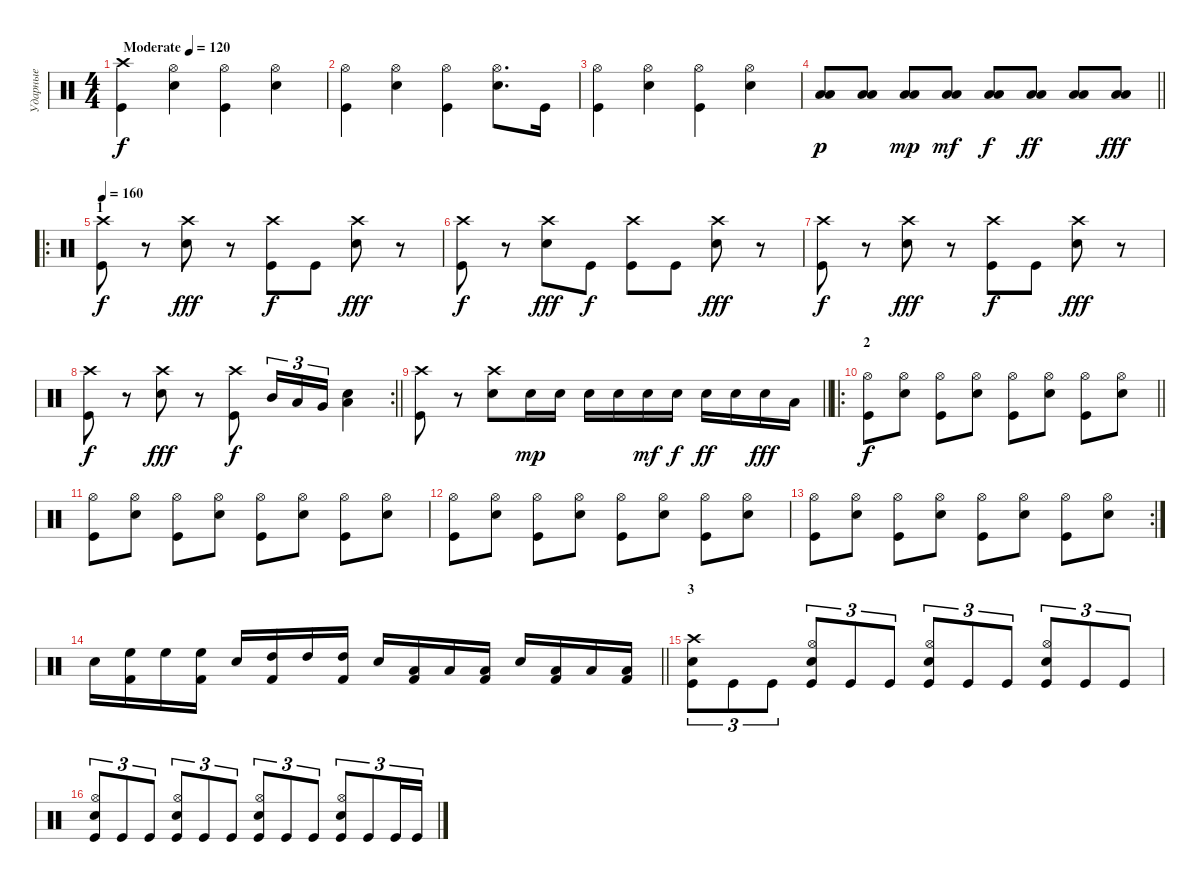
\track ("Ударные" "Ударные") {instrument percussion}
\staff {score}
\articulation defaults
\ts (4 4)
\tempo (120 "Moderate")
\tempo 160
\tempo (120 "Moderate")
\clef neutral
\ks c
("Crash high (hit)" "Kick (hit)").4{dy f} ("Hi-Hat (open)" "Electric Snare (hit)").4 ("Hi-Hat (open)" "Kick (hit)").4 ("Hi-Hat (open)" "Electric Snare (hit)").4 |
("Hi-Hat (open)" "Kick (hit)").4 ("Hi-Hat (open)" "Electric Snare (hit)").4 ("Hi-Hat (open)" "Kick (hit)").4 ("Hi-Hat (open)" "Electric Snare (hit)").8{d} "Kick (hit)".16 |
("Hi-Hat (open)" "Kick (hit)").4 ("Hi-Hat (open)" "Electric Snare (hit)").4 ("Hi-Hat (open)" "Kick (hit)").4 ("Hi-Hat (open)" "Electric Snare (hit)").4 |
\barLineRight lightlight
("Low Tom (hit)" "Low Floor Tom (hit)").8{dy p} ("Low Tom (hit)" "Low Floor Tom (hit)").8 ("Low Tom (hit)" "Low Floor Tom (hit)").8{dy mp} ("Low Tom (hit)" "Low Floor Tom (hit)").8{dy mf} ("Low Tom (hit)" "Low Floor Tom (hit)").8{dy f} ("Low Tom (hit)" "Low Floor Tom (hit)").8{dy ff} ("Low Tom (hit)" "Low Floor Tom (hit)").8 ("Low Tom (hit)" "Low Floor Tom (hit)").8{dy fff} |
\ro
\section ("" "1")
\tempo 160
("Kick (hit)" "Crash high (hit)").8{dy f} r.8 ("Electric Snare (hit)" "Crash high (hit)").8{dy fff} r.8 ("Kick (hit)" "Crash high (hit)").8{dy f} "Kick (hit)".8 ("Electric Snare (hit)" "Crash high (hit)").8{dy fff} r.8 |
("Kick (hit)" "Crash high (hit)").8{dy f} r.8 ("Electric Snare (hit)" "Crash high (hit)").8{dy fff} "Kick (hit)".8{dy f} ("Kick (hit)" "Crash high (hit)").8 "Kick (hit)".8 ("Electric Snare (hit)" "Crash high (hit)").8{dy fff} r.8 |
("Kick (hit)" "Crash high (hit)").8{dy f} r.8 ("Electric Snare (hit)" "Crash high (hit)").8{dy fff} r.8 ("Kick (hit)" "Crash high (hit)").8{dy f} "Kick (hit)".8 ("Electric Snare (hit)" "Crash high (hit)").8{dy fff} r.8 |
\rc 2
\barLineRight lightlight
("Kick (hit)" "Crash high (hit)").8{dy f} r.8 ("Electric Snare (hit)" "Crash high (hit)").8{dy fff} r.8 ("Kick (hit)" "Crash high (hit)").8{dy f} "Mid Tom (hit)".16{tu (3 2)} "Low Tom (hit)".16{tu (3 2)} "Very Low Tom (hit)".16{tu (3 2)} ("Low Floor Tom (hit)" "Electric Snare (hit)").4 |
\barLineRight lightlight
("Kick (hit)" "Crash high (hit)").8 r.8 ("Electric Snare (hit)" "Crash high (hit)").8 "Electric Snare (hit)".16{dy mp} "Electric Snare (hit)".16 "Electric Snare (hit)".16 "Electric Snare (hit)".16 "Electric Snare (hit)".16{dy mf} "Electric Snare (hit)".16{dy f} "Electric Snare (hit)".16{dy ff} "Electric Snare (hit)".16 "Electric Snare (hit)".16{dy fff} "Low Tom (hit)".16 |
\ro
\section ("" "2")
\barLineRight lightlight
("Hi-Hat (open)" "Kick (hit)").8{dy f} ("Hi-Hat (open)" "Electric Snare (hit)").8 ("Hi-Hat (open)" "Kick (hit)").8 ("Hi-Hat (open)" "Electric Snare (hit)").8 ("Hi-Hat (open)" "Kick (hit)").8 ("Hi-Hat (open)" "Electric Snare (hit)").8 ("Hi-Hat (open)" "Kick (hit)").8 ("Hi-Hat (open)" "Electric Snare (hit)").8 |
("Hi-Hat (open)" "Kick (hit)").8 ("Hi-Hat (open)" "Electric Snare (hit)").8 ("Hi-Hat (open)" "Kick (hit)").8 ("Hi-Hat (open)" "Electric Snare (hit)").8 ("Hi-Hat (open)" "Kick (hit)").8 ("Hi-Hat (open)" "Electric Snare (hit)").8 ("Hi-Hat (open)" "Kick (hit)").8 ("Hi-Hat (open)" "Electric Snare (hit)").8 |
("Hi-Hat (open)" "Kick (hit)").8 ("Hi-Hat (open)" "Electric Snare (hit)").8 ("Hi-Hat (open)" "Kick (hit)").8 ("Hi-Hat (open)" "Electric Snare (hit)").8 ("Hi-Hat (open)" "Kick (hit)").8 ("Hi-Hat (open)" "Electric Snare (hit)").8 ("Hi-Hat (open)" "Kick (hit)").8 ("Hi-Hat (open)" "Electric Snare (hit)").8 |
\rc 2
("Hi-Hat (open)" "Kick (hit)").8 ("Hi-Hat (open)" "Electric Snare (hit)").8 ("Hi-Hat (open)" "Kick (hit)").8 ("Hi-Hat (open)" "Electric Snare (hit)").8 ("Hi-Hat (open)" "Kick (hit)").8 ("Hi-Hat (open)" "Electric Snare (hit)").8 ("Hi-Hat (open)" "Kick (hit)").8 ("Hi-Hat (open)" "Electric Snare (hit)").8 |
\barLineRight lightlight "Snare (hit) 2".16
("High Floor Tom (hit)" "Kick (hit) 2").16 "High Floor Tom (hit)".16 ("High Floor Tom (hit)" "Kick (hit) 2").16 "Snare (hit) 2".16 ("High Tom (hit)" "Kick (hit) 2").16 "High Tom (hit)".16 ("High Tom (hit)" "Kick (hit) 2").16 "Snare (hit) 2".16 ("Low Tom (hit)" "Kick (hit) 2").16 "Low Tom (hit)".16 ("Low Tom (hit)" "Kick (hit) 2").16 "Snare (hit) 2".16 ("Low Floor Tom (hit)" "Kick (hit) 2").16 "Low Floor Tom (hit)".16 ("Low Floor Tom (hit)" "Kick (hit) 2").16 |
\section ("" "3")
("Crash high (hit)" "Electric Snare (hit)" "Kick (hit)").8{tu (3 2)} "Kick (hit)".8{tu (3 2)} "Kick (hit)".8{tu (3 2)} ("Hi-Hat (open)" "Electric Snare (hit)" "Kick (hit)").8{tu (3 2)} "Kick (hit)".8{tu (3 2)} "Kick (hit)".8{tu (3 2)} ("Hi-Hat (open)" "Electric Snare (hit)" "Kick (hit)").8{tu (3 2)} "Kick (hit)".8{tu (3 2)} "Kick (hit)".8{tu (3 2)} ("Hi-Hat (open)" "Electric Snare (hit)" "Kick (hit)").8{tu (3 2)} "Kick (hit)".8{tu (3 2)} "Kick (hit)".8{tu (3 2)} |
("Hi-Hat (open)" "Electric Snare (hit)" "Kick (hit)").8{tu (3 2)} "Kick (hit)".8{tu (3 2)} "Kick (hit)".8{tu (3 2)} ("Hi-Hat (open)" "Electric Snare (hit)" "Kick (hit)").8{tu (3 2)} "Kick (hit)".8{tu (3 2)} "Kick (hit)".8{tu (3 2)} ("Hi-Hat (open)" "Electric Snare (hit)" "Kick (hit)").8{tu (3 2)} "Kick (hit)".8{tu (3 2)} "Kick (hit)".8{tu (3 2)} ("Hi-Hat (open)" "Electric Snare (hit)" "Kick (hit)").8{tu (3 2)} "Kick (hit)".8{tu (3 2)} "Kick (hit)".16{tu (3 2)} "Kick (hit)".16{tu (3 2)}
